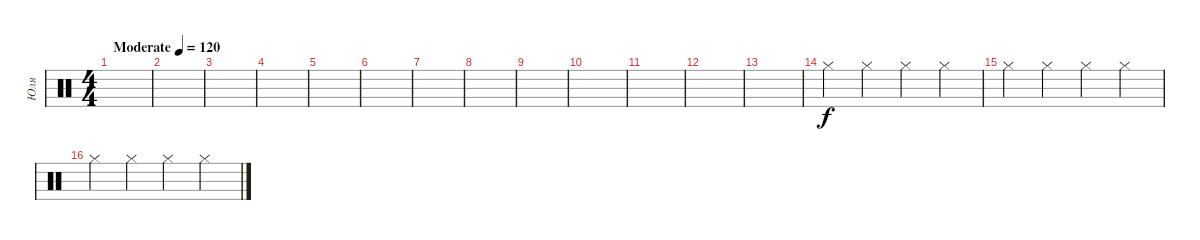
\track ("Юля" "Юля") {instrument percussion}
\staff {score}
\articulation defaults
\ts (4 4)
\tempo (120 "Moderate")
\clef neutral
\ks c
|
|
|
|
|
|
|
|
|
|
|
|
|
"Hi-Hat (closed)".4 "Hi-Hat (closed)".4 "Hi-Hat (closed)".4 "Hi-Hat (closed)".4 |
"Hi-Hat (closed)".4 "Hi-Hat (closed)".4 "Hi-Hat (closed)".4 "Hi-Hat (closed)".4 |
"Hi-Hat (closed)".4 "Hi-Hat (closed)".4 "Hi-Hat (closed)".4 "Hi-Hat (closed)".4
